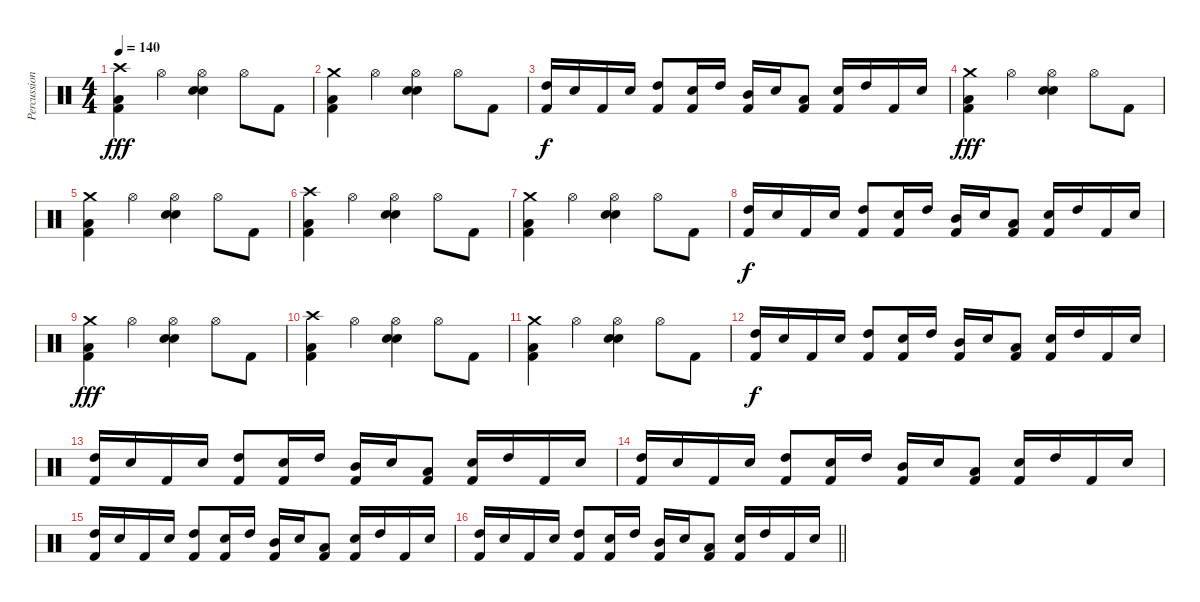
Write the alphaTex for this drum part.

\track ("Percussion" "Percussion") {instrument percussion}
\staff {score}
\articulation defaults
\ts (4 4)
\tempo 140
\clef neutral
\ks c
("Crash high (hit)" "Low Floor Tom (hit)" "Kick (hit) 2").4{dy fff} "Hi-Hat (open)".4 ("Hi-Hat (open)" "Snare (hit) 2" "Electric Snare (hit)").4 "Hi-Hat (open)".8 "Kick (hit) 2".8 |
("Crash medium (hit)" "Low Floor Tom (hit)" "Kick (hit) 2").4 "Hi-Hat (open)".4 ("Hi-Hat (open)" "Snare (hit) 2" "Electric Snare (hit)").4 "Hi-Hat (open)".8 "Kick (hit) 2".8 |
("High Tom (hit)" "Kick (hit) 2").16{dy f} "Snare (hit) 2".16 "Kick (hit) 2".16 "Snare (hit) 2".16 ("High Tom (hit)" "Kick (hit) 2").8 ("Snare (hit) 2" "Kick (hit) 2").16 "High Tom (hit)".16 ("Mid Tom (hit)" "Kick (hit) 2").16 "Snare (hit) 2".16 ("Low Tom (hit)" "Kick (hit) 2").8 ("Snare (hit) 2" "Kick (hit) 2").16 "High Tom (hit)".16 "Kick (hit) 2".16 "Snare (hit) 2".16 |
("Crash medium (hit)" "Low Floor Tom (hit)" "Kick (hit) 2").4{dy fff} "Hi-Hat (open)".4 ("Hi-Hat (open)" "Snare (hit) 2" "Electric Snare (hit)").4 "Hi-Hat (open)".8 "Kick (hit) 2".8 |
("Crash medium (hit)" "Low Floor Tom (hit)" "Kick (hit) 2").4 "Hi-Hat (open)".4 ("Hi-Hat (open)" "Snare (hit) 2" "Electric Snare (hit)").4 "Hi-Hat (open)".8 "Kick (hit) 2".8 |
("Crash high (hit)" "Low Floor Tom (hit)" "Kick (hit) 2").4 "Hi-Hat (open)".4 ("Hi-Hat (open)" "Snare (hit) 2" "Electric Snare (hit)").4 "Hi-Hat (open)".8 "Kick (hit) 2".8 |
("Crash medium (hit)" "Low Floor Tom (hit)" "Kick (hit) 2").4 "Hi-Hat (open)".4 ("Hi-Hat (open)" "Snare (hit) 2" "Electric Snare (hit)").4 "Hi-Hat (open)".8 "Kick (hit) 2".8 |
("High Tom (hit)" "Kick (hit) 2").16{dy f} "Snare (hit) 2".16 "Kick (hit) 2".16 "Snare (hit) 2".16 ("High Tom (hit)" "Kick (hit) 2").8 ("Snare (hit) 2" "Kick (hit) 2").16 "High Tom (hit)".16 ("Mid Tom (hit)" "Kick (hit) 2").16 "Snare (hit) 2".16 ("Low Tom (hit)" "Kick (hit) 2").8 ("Snare (hit) 2" "Kick (hit) 2").16 "High Tom (hit)".16 "Kick (hit) 2".16 "Snare (hit) 2".16 |
("Crash medium (hit)" "Low Floor Tom (hit)" "Kick (hit) 2").4{dy fff} "Hi-Hat (open)".4 ("Hi-Hat (open)" "Snare (hit) 2" "Electric Snare (hit)").4 "Hi-Hat (open)".8 "Kick (hit) 2".8 |
("Crash high (hit)" "Low Floor Tom (hit)" "Kick (hit) 2").4 "Hi-Hat (open)".4 ("Hi-Hat (open)" "Snare (hit) 2" "Electric Snare (hit)").4 "Hi-Hat (open)".8 "Kick (hit) 2".8 |
("Crash medium (hit)" "Low Floor Tom (hit)" "Kick (hit) 2").4 "Hi-Hat (open)".4 ("Hi-Hat (open)" "Snare (hit) 2" "Electric Snare (hit)").4 "Hi-Hat (open)".8 "Kick (hit) 2".8 |
("High Tom (hit)" "Kick (hit) 2").16{dy f} "Snare (hit) 2".16 "Kick (hit) 2".16 "Snare (hit) 2".16 ("High Tom (hit)" "Kick (hit) 2").8 ("Snare (hit) 2" "Kick (hit) 2").16 "High Tom (hit)".16 ("Mid Tom (hit)" "Kick (hit) 2").16 "Snare (hit) 2".16 ("Low Tom (hit)" "Kick (hit) 2").8 ("Snare (hit) 2" "Kick (hit) 2").16 "High Tom (hit)".16 "Kick (hit) 2".16 "Snare (hit) 2".16 |
("High Tom (hit)" "Kick (hit) 2").16 "Snare (hit) 2".16 "Kick (hit) 2".16 "Snare (hit) 2".16 ("High Tom (hit)" "Kick (hit) 2").8 ("Snare (hit) 2" "Kick (hit) 2").16 "High Tom (hit)".16 ("Mid Tom (hit)" "Kick (hit) 2").16 "Snare (hit) 2".16 ("Low Tom (hit)" "Kick (hit) 2").8 ("Snare (hit) 2" "Kick (hit) 2").16 "High Tom (hit)".16 "Kick (hit) 2".16 "Snare (hit) 2".16 |
("High Tom (hit)" "Kick (hit) 2").16 "Snare (hit) 2".16 "Kick (hit) 2".16 "Snare (hit) 2".16 ("High Tom (hit)" "Kick (hit) 2").8 ("Snare (hit) 2" "Kick (hit) 2").16 "High Tom (hit)".16 ("Mid Tom (hit)" "Kick (hit) 2").16 "Snare (hit) 2".16 ("Low Tom (hit)" "Kick (hit) 2").8 ("Snare (hit) 2" "Kick (hit) 2").16 "High Tom (hit)".16 "Kick (hit) 2".16 "Snare (hit) 2".16 |
("High Tom (hit)" "Kick (hit) 2").16 "Snare (hit) 2".16 "Kick (hit) 2".16 "Snare (hit) 2".16 ("High Tom (hit)" "Kick (hit) 2").8 ("Snare (hit) 2" "Kick (hit) 2").16 "High Tom (hit)".16 ("Mid Tom (hit)" "Kick (hit) 2").16 "Snare (hit) 2".16 ("Low Tom (hit)" "Kick (hit) 2").8 ("Snare (hit) 2" "Kick (hit) 2").16 "High Tom (hit)".16 "Kick (hit) 2".16 "Snare (hit) 2".16 |
\barLineRight lightlight
("High Tom (hit)" "Kick (hit) 2").16 "Snare (hit) 2".16 "Kick (hit) 2".16 "Snare (hit) 2".16 ("High Tom (hit)" "Kick (hit) 2").8 ("Snare (hit) 2" "Kick (hit) 2").16 "High Tom (hit)".16 ("Mid Tom (hit)" "Kick (hit) 2").16 "Snare (hit) 2".16 ("Low Tom (hit)" "Kick (hit) 2").8 ("Snare (hit) 2" "Kick (hit) 2").16 "High Tom (hit)".16 "Kick (hit) 2".16 "Snare (hit) 2".16
